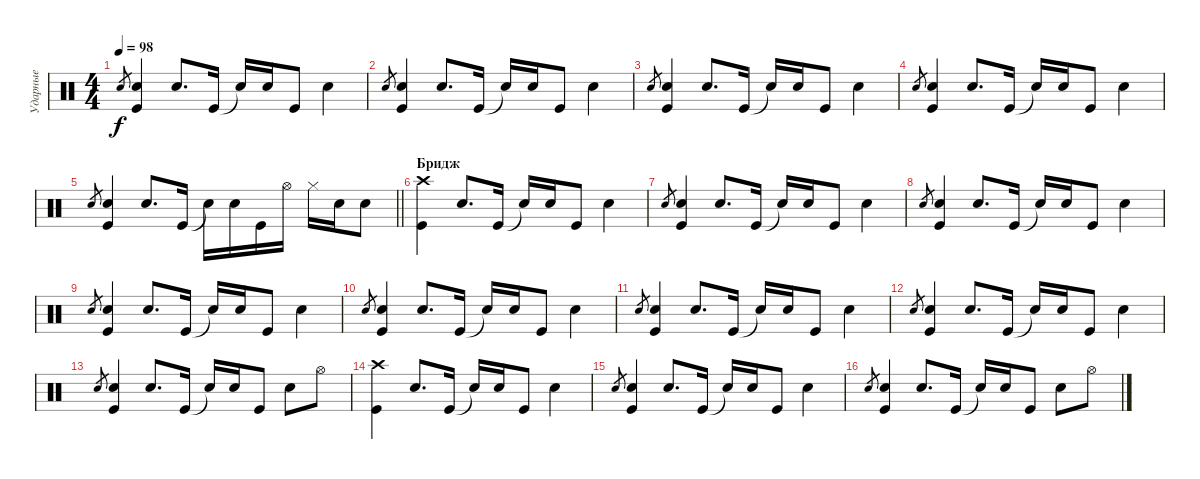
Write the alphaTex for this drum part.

\track ("Ударные" "Ударные") {instrument percussion}
\staff {score}
\articulation defaults
\ts (4 4)
\tempo 98
\clef neutral
\ks c "Snare (hit) 2"{sl x}.8{gr dy f}
("Snare (hit) 2" "Kick (hit)").4 "Snare (hit) 2".8{d} "Kick (hit)".16 "Snare (hit)"{t}.16 "Snare (hit) 2".16 "Kick (hit)".8 "Snare (hit) 2".4 |
"Snare (hit) 2"{sl x}.8{gr} ("Snare (hit) 2" "Kick (hit)").4 "Snare (hit) 2".8{d} "Kick (hit)".16 "Snare (hit)"{t}.16 "Snare (hit) 2".16 "Kick (hit)".8 "Snare (hit) 2".4 |
"Snare (hit) 2"{sl x}.8{gr} ("Snare (hit) 2" "Kick (hit)").4 "Snare (hit) 2".8{d} "Kick (hit)".16 "Snare (hit)"{t}.16 "Snare (hit) 2".16 "Kick (hit)".8 "Snare (hit) 2".4 |
"Snare (hit) 2"{sl x}.8{gr} ("Snare (hit) 2" "Kick (hit)").4 "Snare (hit) 2".8{d} "Kick (hit)".16 "Snare (hit)"{t}.16 "Snare (hit) 2".16 "Kick (hit)".8 "Snare (hit) 2".4 |
\barLineRight lightlight "Snare (hit) 2"{sl x}.8{gr}
("Snare (hit) 2" "Kick (hit)").4 "Snare (hit) 2".8{d} "Kick (hit)".16 "Snare (hit)"{t}.16 "Snare (hit) 2".16 "Kick (hit)".16 "Hi-Hat (open)".16 "Hi-Hat (closed)".16 "Snare (hit) 2".16 "Snare (hit) 2".8 |
\section ("" "Бридж")
("Crash high (hit)" "Kick (hit)").4 "Snare (hit) 2".8{d} "Kick (hit)".16 "Snare (hit)"{t}.16 "Snare (hit) 2".16 "Kick (hit)".8 "Snare (hit) 2".4 |
"Snare (hit) 2"{sl x}.8{gr} ("Snare (hit) 2" "Kick (hit)").4 "Snare (hit) 2".8{d} "Kick (hit)".16 "Snare (hit)"{t}.16 "Snare (hit) 2".16 "Kick (hit)".8 "Snare (hit) 2".4 |
"Snare (hit) 2"{sl x}.8{gr} ("Snare (hit) 2" "Kick (hit)").4 "Snare (hit) 2".8{d} "Kick (hit)".16 "Snare (hit)"{t}.16 "Snare (hit) 2".16 "Kick (hit)".8 "Snare (hit) 2".4 |
"Snare (hit) 2"{sl x}.8{gr} ("Snare (hit) 2" "Kick (hit)").4 "Snare (hit) 2".8{d} "Kick (hit)".16 "Snare (hit)"{t}.16 "Snare (hit) 2".16 "Kick (hit)".8 "Snare (hit) 2".4 |
"Snare (hit) 2"{sl x}.8{gr} ("Snare (hit) 2" "Kick (hit)").4 "Snare (hit) 2".8{d} "Kick (hit)".16 "Snare (hit)"{t}.16 "Snare (hit) 2".16 "Kick (hit)".8 "Snare (hit) 2".4 |
"Snare (hit) 2"{sl x}.8{gr} ("Snare (hit) 2" "Kick (hit)").4 "Snare (hit) 2".8{d} "Kick (hit)".16 "Snare (hit)"{t}.16 "Snare (hit) 2".16 "Kick (hit)".8 "Snare (hit) 2".4 |
"Snare (hit) 2"{sl x}.8{gr} ("Snare (hit) 2" "Kick (hit)").4 "Snare (hit) 2".8{d} "Kick (hit)".16 "Snare (hit)"{t}.16 "Snare (hit) 2".16 "Kick (hit)".8 "Snare (hit) 2".4 |
"Snare (hit) 2"{sl x}.8{gr} ("Snare (hit) 2" "Kick (hit)").4 "Snare (hit) 2".8{d} "Kick (hit)".16 "Snare (hit)"{t}.16 "Snare (hit) 2".16 "Kick (hit)".8 "Snare (hit) 2".8 "Hi-Hat (open)".8 |
("Crash high (hit)" "Kick (hit)").4 "Snare (hit) 2".8{d} "Kick (hit)".16 "Snare (hit)"{t}.16 "Snare (hit) 2".16 "Kick (hit)".8 "Snare (hit) 2".4 |
"Snare (hit) 2"{sl x}.8{gr} ("Snare (hit) 2" "Kick (hit)").4 "Snare (hit) 2".8{d} "Kick (hit)".16 "Snare (hit)"{t}.16 "Snare (hit) 2".16 "Kick (hit)".8 "Snare (hit) 2".4 |
"Snare (hit) 2"{sl x}.8{gr} ("Snare (hit) 2" "Kick (hit)").4 "Snare (hit) 2".8{d} "Kick (hit)".16 "Snare (hit)"{t}.16 "Snare (hit) 2".16 "Kick (hit)".8 "Snare (hit) 2".8 "Hi-Hat (open)".8
